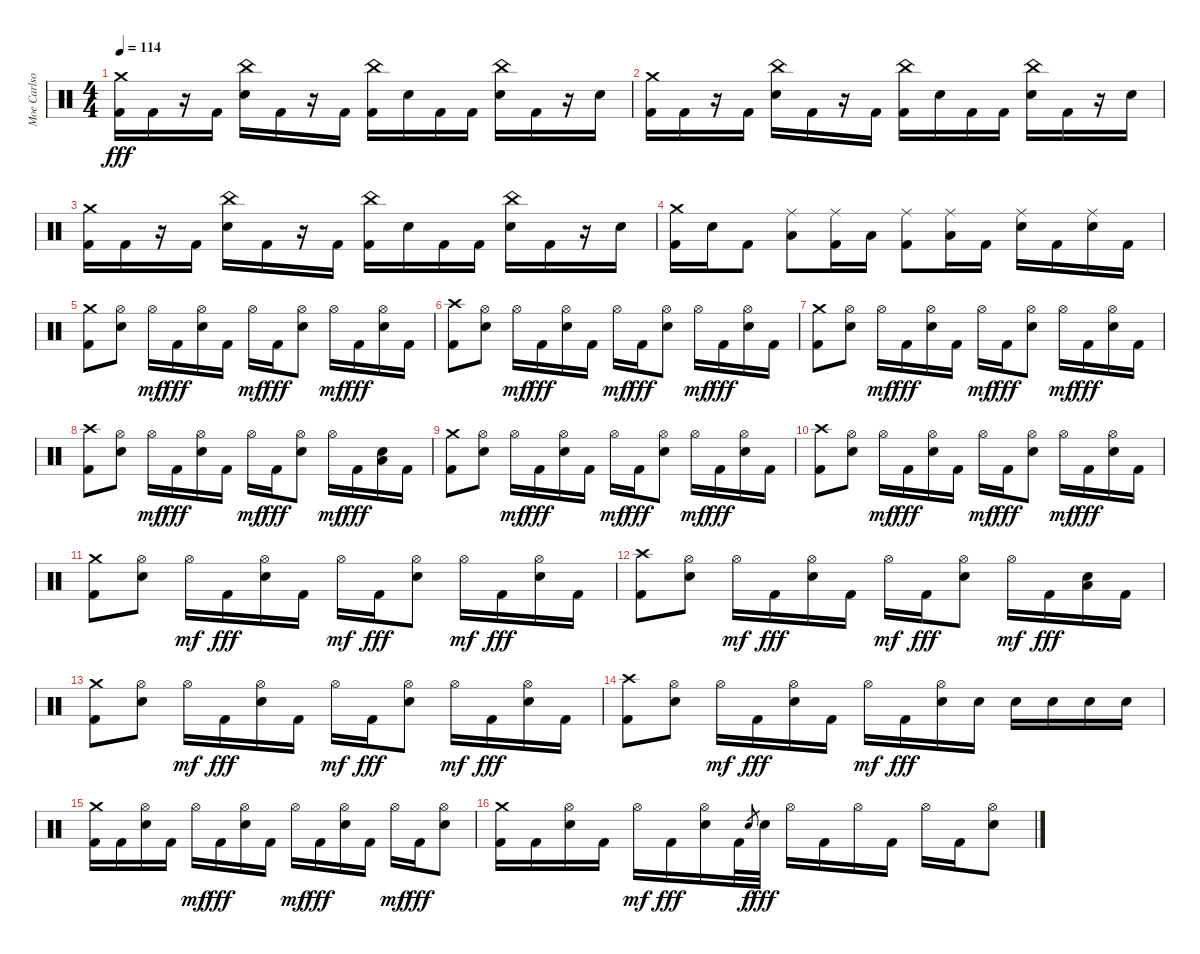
\track ("Moe Carlson" "Moe Carlso") {instrument percussion}
\staff {score}
\articulation defaults
\ts (4 4)
\tempo 114
\clef neutral
\ks c
("Crash medium (hit)" "Kick (hit) 2").16{dy fff} "Kick (hit) 2".16 r.16 "Kick (hit) 2".16 ("China (hit)" "Electric Snare (hit)").16 "Kick (hit) 2".16 r.16 "Kick (hit) 2".16 ("China (hit)" "Kick (hit) 2").16 "Electric Snare (hit)".16 "Kick (hit) 2".16 "Kick (hit) 2".16 ("China (hit)" "Electric Snare (hit)").16 "Kick (hit) 2".16 r.16 "Electric Snare (hit)".16 |
("Crash medium (hit)" "Kick (hit) 2").16 "Kick (hit) 2".16 r.16 "Kick (hit) 2".16 ("China (hit)" "Electric Snare (hit)").16 "Kick (hit) 2".16 r.16 "Kick (hit) 2".16 ("China (hit)" "Kick (hit) 2").16 "Electric Snare (hit)".16 "Kick (hit) 2".16 "Kick (hit) 2".16 ("China (hit)" "Electric Snare (hit)").16 "Kick (hit) 2".16 r.16 "Electric Snare (hit)".16 |
("Crash medium (hit)" "Kick (hit) 2").16 "Kick (hit) 2".16 r.16 "Kick (hit) 2".16 ("China (hit)" "Electric Snare (hit)").16 "Kick (hit) 2".16 r.16 "Kick (hit) 2".16 ("China (hit)" "Kick (hit) 2").16 "Electric Snare (hit)".16 "Kick (hit) 2".16 "Kick (hit) 2".16 ("China (hit)" "Electric Snare (hit)").16 "Kick (hit) 2".16 r.16 "Electric Snare (hit)".16 |
("Crash medium (hit)" "Kick (hit) 2").16 "Electric Snare (hit)".16 "Kick (hit) 2".8 ("Ride (middle)" "Low Tom (hit)").8 ("Ride (middle)" "Kick (hit) 2").16 "Low Tom (hit)".16 ("Ride (middle)" "Kick (hit) 2").8 ("Ride (middle)" "Low Tom (hit)").16 "Kick (hit) 2".16 ("Ride (middle)" "Electric Snare (hit)").16 "Kick (hit) 2".16 ("Ride (middle)" "Electric Snare (hit)").16 "Kick (hit) 2".16 |
("Crash medium (hit)" "Kick (hit) 2").8 ("Hi-Hat (open)" "Electric Snare (hit)").8 "Hi-Hat (open)".16{dy mf} "Kick (hit) 2".16{dy fff} ("Hi-Hat (open)" "Electric Snare (hit)").16 "Kick (hit) 2".16 "Hi-Hat (open)".16{dy mf} "Kick (hit) 2".16{dy fff} ("Hi-Hat (open)" "Electric Snare (hit)").8 "Hi-Hat (open)".16{dy mf} "Kick (hit) 2".16{dy fff} ("Hi-Hat (open)" "Electric Snare (hit)").16 "Kick (hit) 2".16 |
("Crash high (hit)" "Kick (hit) 2").8 ("Hi-Hat (open)" "Electric Snare (hit)").8 "Hi-Hat (open)".16{dy mf} "Kick (hit) 2".16{dy fff} ("Hi-Hat (open)" "Electric Snare (hit)").16 "Kick (hit) 2".16 "Hi-Hat (open)".16{dy mf} "Kick (hit) 2".16{dy fff} ("Hi-Hat (open)" "Electric Snare (hit)").8 "Hi-Hat (open)".16{dy mf} "Kick (hit) 2".16{dy fff} ("Hi-Hat (open)" "Electric Snare (hit)").16 "Kick (hit) 2".16 |
("Crash medium (hit)" "Kick (hit) 2").8 ("Hi-Hat (open)" "Electric Snare (hit)").8 "Hi-Hat (open)".16{dy mf} "Kick (hit) 2".16{dy fff} ("Hi-Hat (open)" "Electric Snare (hit)").16 "Kick (hit) 2".16 "Hi-Hat (open)".16{dy mf} "Kick (hit) 2".16{dy fff} ("Hi-Hat (open)" "Electric Snare (hit)").8 "Hi-Hat (open)".16{dy mf} "Kick (hit) 2".16{dy fff} ("Hi-Hat (open)" "Electric Snare (hit)").16 "Kick (hit) 2".16 |
("Crash high (hit)" "Kick (hit) 2").8 ("Hi-Hat (open)" "Electric Snare (hit)").8 "Hi-Hat (open)".16{dy mf} "Kick (hit) 2".16{dy fff} ("Hi-Hat (open)" "Electric Snare (hit)").16 "Kick (hit) 2".16 "Hi-Hat (open)".16{dy mf} "Kick (hit) 2".16{dy fff} ("Hi-Hat (open)" "Electric Snare (hit)").8 "Hi-Hat (open)".16{dy mf} "Kick (hit) 2".16{dy fff} ("Electric Snare (hit)" "Low Floor Tom (hit)").16 "Kick (hit) 2".16 |
("Crash medium (hit)" "Kick (hit) 2").8 ("Hi-Hat (open)" "Electric Snare (hit)").8 "Hi-Hat (open)".16{dy mf} "Kick (hit) 2".16{dy fff} ("Hi-Hat (open)" "Electric Snare (hit)").16 "Kick (hit) 2".16 "Hi-Hat (open)".16{dy mf} "Kick (hit) 2".16{dy fff} ("Hi-Hat (open)" "Electric Snare (hit)").8 "Hi-Hat (open)".16{dy mf} "Kick (hit) 2".16{dy fff} ("Hi-Hat (open)" "Electric Snare (hit)").16 "Kick (hit) 2".16 |
("Crash high (hit)" "Kick (hit) 2").8 ("Hi-Hat (open)" "Electric Snare (hit)").8 "Hi-Hat (open)".16{dy mf} "Kick (hit) 2".16{dy fff} ("Hi-Hat (open)" "Electric Snare (hit)").16 "Kick (hit) 2".16 "Hi-Hat (open)".16{dy mf} "Kick (hit) 2".16{dy fff} ("Hi-Hat (open)" "Electric Snare (hit)").8 "Hi-Hat (open)".16{dy mf} "Kick (hit) 2".16{dy fff} ("Hi-Hat (open)" "Electric Snare (hit)").16 "Kick (hit) 2".16 |
("Crash medium (hit)" "Kick (hit) 2").8 ("Hi-Hat (open)" "Electric Snare (hit)").8 "Hi-Hat (open)".16{dy mf} "Kick (hit) 2".16{dy fff} ("Hi-Hat (open)" "Electric Snare (hit)").16 "Kick (hit) 2".16 "Hi-Hat (open)".16{dy mf} "Kick (hit) 2".16{dy fff} ("Hi-Hat (open)" "Electric Snare (hit)").8 "Hi-Hat (open)".16{dy mf} "Kick (hit) 2".16{dy fff} ("Hi-Hat (open)" "Electric Snare (hit)").16 "Kick (hit) 2".16 |
("Crash high (hit)" "Kick (hit) 2").8 ("Hi-Hat (open)" "Electric Snare (hit)").8 "Hi-Hat (open)".16{dy mf} "Kick (hit) 2".16{dy fff} ("Hi-Hat (open)" "Electric Snare (hit)").16 "Kick (hit) 2".16 "Hi-Hat (open)".16{dy mf} "Kick (hit) 2".16{dy fff} ("Hi-Hat (open)" "Electric Snare (hit)").8 "Hi-Hat (open)".16{dy mf} "Kick (hit) 2".16{dy fff} ("Electric Snare (hit)" "Low Floor Tom (hit)").16 "Kick (hit) 2".16 |
("Crash medium (hit)" "Kick (hit) 2").8 ("Hi-Hat (open)" "Electric Snare (hit)").8 "Hi-Hat (open)".16{dy mf} "Kick (hit) 2".16{dy fff} ("Hi-Hat (open)" "Electric Snare (hit)").16 "Kick (hit) 2".16 "Hi-Hat (open)".16{dy mf} "Kick (hit) 2".16{dy fff} ("Hi-Hat (open)" "Electric Snare (hit)").8 "Hi-Hat (open)".16{dy mf} "Kick (hit) 2".16{dy fff} ("Hi-Hat (open)" "Electric Snare (hit)").16 "Kick (hit) 2".16 |
("Crash high (hit)" "Kick (hit) 2").8 ("Hi-Hat (open)" "Electric Snare (hit)").8 "Hi-Hat (open)".16{dy mf} "Kick (hit) 2".16{dy fff} ("Hi-Hat (open)" "Electric Snare (hit)").16 "Kick (hit) 2".16 "Hi-Hat (open)".16{dy mf} "Kick (hit) 2".16{dy fff} ("Hi-Hat (open)" "Electric Snare (hit)").16 "Electric Snare (hit)".16 "Electric Snare (hit)".16 "Electric Snare (hit)".16 "Electric Snare (hit)".16 "Electric Snare (hit)".16 |
("Crash medium (hit)" "Kick (hit) 2").16 "Kick (hit) 2".16 ("Hi-Hat (open)" "Electric Snare (hit)").16 "Kick (hit) 2".16 "Hi-Hat (open)".16{dy mf} "Kick (hit) 2".16{dy fff} ("Hi-Hat (open)" "Electric Snare (hit)").16 "Kick (hit) 2".16 "Hi-Hat (open)".16{dy mf} "Kick (hit) 2".16{dy fff} ("Hi-Hat (open)" "Electric Snare (hit)").16 "Kick (hit) 2".16 "Hi-Hat (open)".16{dy mf} "Kick (hit) 2".16{dy fff} ("Hi-Hat (open)" "Electric Snare (hit)").8 |
("Crash medium (hit)" "Kick (hit) 2").16 "Kick (hit) 2".16 ("Hi-Hat (open)" "Electric Snare (hit)").16 "Kick (hit) 2".16 "Hi-Hat (open)".16{dy mf} "Kick (hit) 2".16{dy fff} ("Hi-Hat (open)" "Electric Snare (hit)").16 "Kick (hit) 2".32 "Electric Snare (hit)".8{gr dy f} "Electric Snare (hit)".32{dy fff} "Hi-Hat (open)".16 "Kick (hit) 2".16 "Hi-Hat (open)".16 "Kick (hit) 2".16 "Hi-Hat (open)".16 "Kick (hit) 2".16 ("Hi-Hat (open)" "Electric Snare (hit)").8
